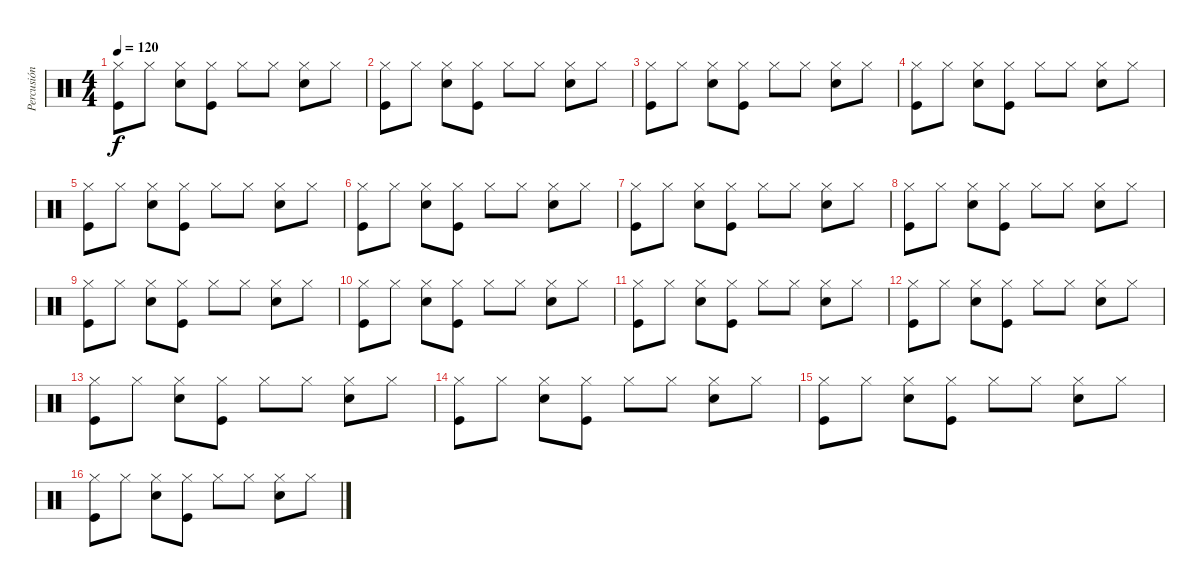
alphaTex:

\track ("Percusión" "Percusión") {instrument percussion}
\staff {score}
\articulation defaults
\ts (4 4)
\tempo 120
\clef neutral
\ks c
("Hi-Hat (closed)" "Kick (hit)").8{dy f} "Hi-Hat (closed)".8 ("Hi-Hat (closed)" "Electric Snare (hit)").8 ("Hi-Hat (closed)" "Kick (hit)").8 "Hi-Hat (closed)".8 "Hi-Hat (closed)".8 ("Hi-Hat (closed)" "Electric Snare (hit)").8 "Hi-Hat (closed)".8 |
("Hi-Hat (closed)" "Kick (hit)").8 "Hi-Hat (closed)".8 ("Hi-Hat (closed)" "Electric Snare (hit)").8 ("Hi-Hat (closed)" "Kick (hit)").8 "Hi-Hat (closed)".8 "Hi-Hat (closed)".8 ("Hi-Hat (closed)" "Electric Snare (hit)").8 "Hi-Hat (closed)".8 |
("Hi-Hat (closed)" "Kick (hit)").8 "Hi-Hat (closed)".8 ("Hi-Hat (closed)" "Electric Snare (hit)").8 ("Hi-Hat (closed)" "Kick (hit)").8 "Hi-Hat (closed)".8 "Hi-Hat (closed)".8 ("Hi-Hat (closed)" "Electric Snare (hit)").8 "Hi-Hat (closed)".8 |
("Hi-Hat (closed)" "Kick (hit)").8 "Hi-Hat (closed)".8 ("Hi-Hat (closed)" "Electric Snare (hit)").8 ("Hi-Hat (closed)" "Kick (hit)").8 "Hi-Hat (closed)".8 "Hi-Hat (closed)".8 ("Hi-Hat (closed)" "Electric Snare (hit)").8 "Hi-Hat (closed)".8 |
("Hi-Hat (closed)" "Kick (hit)").8 "Hi-Hat (closed)".8 ("Hi-Hat (closed)" "Electric Snare (hit)").8 ("Hi-Hat (closed)" "Kick (hit)").8 "Hi-Hat (closed)".8 "Hi-Hat (closed)".8 ("Hi-Hat (closed)" "Electric Snare (hit)").8 "Hi-Hat (closed)".8 |
("Hi-Hat (closed)" "Kick (hit)").8 "Hi-Hat (closed)".8 ("Hi-Hat (closed)" "Electric Snare (hit)").8 ("Hi-Hat (closed)" "Kick (hit)").8 "Hi-Hat (closed)".8 "Hi-Hat (closed)".8 ("Hi-Hat (closed)" "Electric Snare (hit)").8 "Hi-Hat (closed)".8 |
("Hi-Hat (closed)" "Kick (hit)").8 "Hi-Hat (closed)".8 ("Hi-Hat (closed)" "Electric Snare (hit)").8 ("Hi-Hat (closed)" "Kick (hit)").8 "Hi-Hat (closed)".8 "Hi-Hat (closed)".8 ("Hi-Hat (closed)" "Electric Snare (hit)").8 "Hi-Hat (closed)".8 |
("Hi-Hat (closed)" "Kick (hit)").8 "Hi-Hat (closed)".8 ("Hi-Hat (closed)" "Electric Snare (hit)").8 ("Hi-Hat (closed)" "Kick (hit)").8 "Hi-Hat (closed)".8 "Hi-Hat (closed)".8 ("Hi-Hat (closed)" "Electric Snare (hit)").8 "Hi-Hat (closed)".8 |
("Hi-Hat (closed)" "Kick (hit)").8 "Hi-Hat (closed)".8 ("Hi-Hat (closed)" "Electric Snare (hit)").8 ("Hi-Hat (closed)" "Kick (hit)").8 "Hi-Hat (closed)".8 "Hi-Hat (closed)".8 ("Hi-Hat (closed)" "Electric Snare (hit)").8 "Hi-Hat (closed)".8 |
("Hi-Hat (closed)" "Kick (hit)").8 "Hi-Hat (closed)".8 ("Hi-Hat (closed)" "Electric Snare (hit)").8 ("Hi-Hat (closed)" "Kick (hit)").8 "Hi-Hat (closed)".8 "Hi-Hat (closed)".8 ("Hi-Hat (closed)" "Electric Snare (hit)").8 "Hi-Hat (closed)".8 |
("Hi-Hat (closed)" "Kick (hit)").8 "Hi-Hat (closed)".8 ("Hi-Hat (closed)" "Electric Snare (hit)").8 ("Hi-Hat (closed)" "Kick (hit)").8 "Hi-Hat (closed)".8 "Hi-Hat (closed)".8 ("Hi-Hat (closed)" "Electric Snare (hit)").8 "Hi-Hat (closed)".8 |
("Hi-Hat (closed)" "Kick (hit)").8 "Hi-Hat (closed)".8 ("Hi-Hat (closed)" "Electric Snare (hit)").8 ("Hi-Hat (closed)" "Kick (hit)").8 "Hi-Hat (closed)".8 "Hi-Hat (closed)".8 ("Hi-Hat (closed)" "Electric Snare (hit)").8 "Hi-Hat (closed)".8 |
("Hi-Hat (closed)" "Kick (hit)").8 "Hi-Hat (closed)".8 ("Hi-Hat (closed)" "Electric Snare (hit)").8 ("Hi-Hat (closed)" "Kick (hit)").8 "Hi-Hat (closed)".8 "Hi-Hat (closed)".8 ("Hi-Hat (closed)" "Electric Snare (hit)").8 "Hi-Hat (closed)".8 |
("Hi-Hat (closed)" "Kick (hit)").8 "Hi-Hat (closed)".8 ("Hi-Hat (closed)" "Electric Snare (hit)").8 ("Hi-Hat (closed)" "Kick (hit)").8 "Hi-Hat (closed)".8 "Hi-Hat (closed)".8 ("Hi-Hat (closed)" "Electric Snare (hit)").8 "Hi-Hat (closed)".8 |
("Hi-Hat (closed)" "Kick (hit)").8 "Hi-Hat (closed)".8 ("Hi-Hat (closed)" "Electric Snare (hit)").8 ("Hi-Hat (closed)" "Kick (hit)").8 "Hi-Hat (closed)".8 "Hi-Hat (closed)".8 ("Hi-Hat (closed)" "Electric Snare (hit)").8 "Hi-Hat (closed)".8 |
("Hi-Hat (closed)" "Kick (hit)").8 "Hi-Hat (closed)".8 ("Hi-Hat (closed)" "Electric Snare (hit)").8 ("Hi-Hat (closed)" "Kick (hit)").8 "Hi-Hat (closed)".8 "Hi-Hat (closed)".8 ("Hi-Hat (closed)" "Electric Snare (hit)").8 "Hi-Hat (closed)".8
